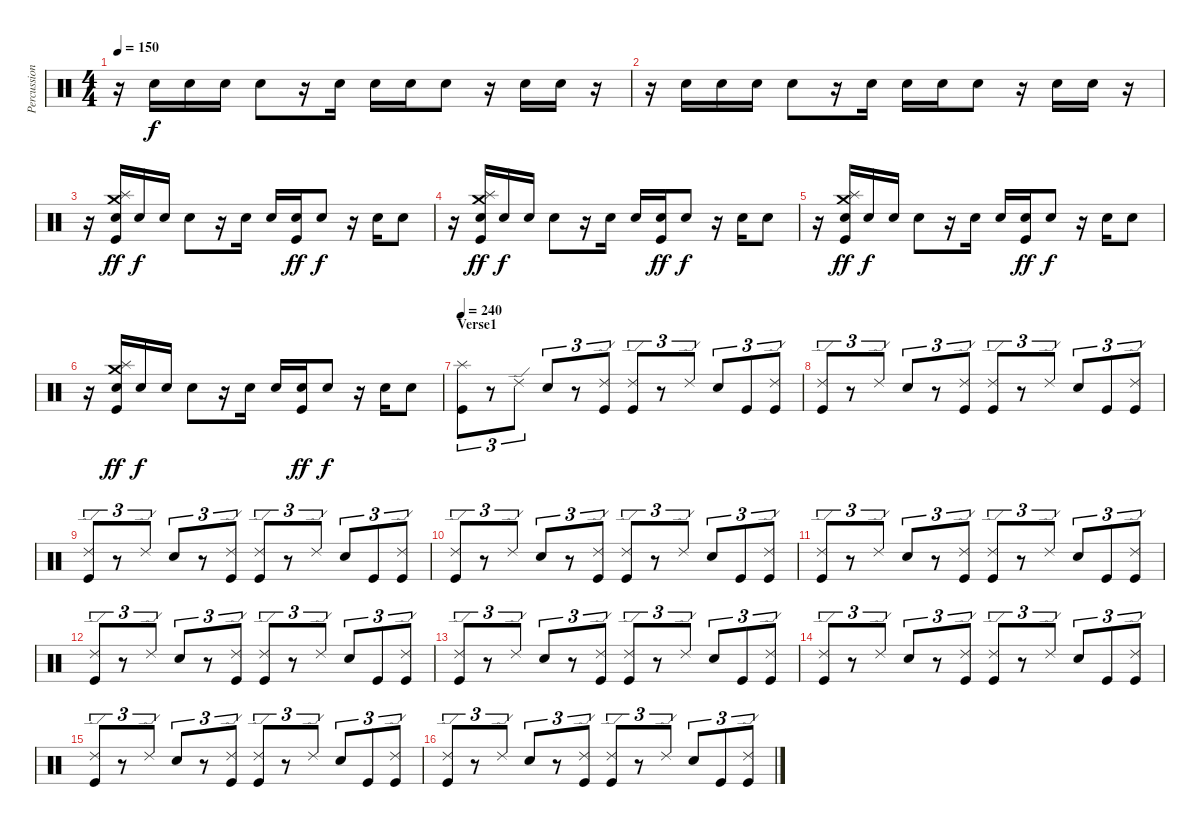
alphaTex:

\track ("Percussioni" "Percussion") {instrument percussion}
\staff {score}
\articulation defaults
\ts (4 4)
\tempo 150
\clef neutral
\ks c
r.16{dy f} "Electric Snare (hit)".16 "Electric Snare (hit)".16 "Electric Snare (hit)".16 "Electric Snare (hit)".8 r.16 "Electric Snare (hit)".16 "Electric Snare (hit)".16 "Electric Snare (hit)".16 "Electric Snare (hit)".8 r.16 "Electric Snare (hit)".16 "Electric Snare (hit)".16 r.16 |
r.16 "Electric Snare (hit)".16 "Electric Snare (hit)".16 "Electric Snare (hit)".16 "Electric Snare (hit)".8 r.16 "Electric Snare (hit)".16 "Electric Snare (hit)".16 "Electric Snare (hit)".16 "Electric Snare (hit)".8 r.16 "Electric Snare (hit)".16 "Electric Snare (hit)".16 r.16 |
r.16 ("Crash medium (hit)" "Splash (hit)" "Electric Snare (hit)" "Kick (hit)").16{dy ff} "Electric Snare (hit)".16{dy f} "Electric Snare (hit)".16 "Electric Snare (hit)".8 r.16 "Electric Snare (hit)".16 "Electric Snare (hit)".16 ("Electric Snare (hit)" "Kick (hit)").16{dy ff} "Electric Snare (hit)".8{dy f} r.16 "Electric Snare (hit)".16 "Electric Snare (hit)".8 |
r.16 ("Crash medium (hit)" "Splash (hit)" "Electric Snare (hit)" "Kick (hit)").16{dy ff} "Electric Snare (hit)".16{dy f} "Electric Snare (hit)".16 "Electric Snare (hit)".8 r.16 "Electric Snare (hit)".16 "Electric Snare (hit)".16 ("Electric Snare (hit)" "Kick (hit)").16{dy ff} "Electric Snare (hit)".8{dy f} r.16 "Electric Snare (hit)".16 "Electric Snare (hit)".8 |
r.16 ("Crash medium (hit)" "Splash (hit)" "Electric Snare (hit)" "Kick (hit)").16{dy ff} "Electric Snare (hit)".16{dy f} "Electric Snare (hit)".16 "Electric Snare (hit)".8 r.16 "Electric Snare (hit)".16 "Electric Snare (hit)".16 ("Electric Snare (hit)" "Kick (hit)").16{dy ff} "Electric Snare (hit)".8{dy f} r.16 "Electric Snare (hit)".16 "Electric Snare (hit)".8 |
r.16 ("Crash medium (hit)" "Splash (hit)" "Electric Snare (hit)" "Kick (hit)").16{dy ff} "Electric Snare (hit)".16{dy f} "Electric Snare (hit)".16 "Electric Snare (hit)".8 r.16 "Electric Snare (hit)".16 "Electric Snare (hit)".16 ("Electric Snare (hit)" "Kick (hit)").16{dy ff} "Electric Snare (hit)".8{dy f} r.16 "Electric Snare (hit)".16 "Electric Snare (hit)".8 |
\section ("" "Verse1")
\tempo 240
("Splash (hit)" "Kick (hit)").8{tu (3 2)} r.8{tu (3 2)} "Ride (edge) 2".8{tu (3 2)} "Electric Snare (hit)".8{tu (3 2)} r.8{tu (3 2)} ("Ride (edge) 2" "Kick (hit)").8{tu (3 2)} ("Ride (edge) 2" "Kick (hit)").8{tu (3 2)} r.8{tu (3 2)} "Ride (edge) 2".8{tu (3 2)} "Electric Snare (hit)".8{tu (3 2)} "Kick (hit)".8{tu (3 2)} ("Ride (edge) 2" "Kick (hit)").8{tu (3 2)} |
("Ride (edge) 2" "Kick (hit)").8{tu (3 2)} r.8{tu (3 2)} "Ride (edge) 2".8{tu (3 2)} "Electric Snare (hit)".8{tu (3 2)} r.8{tu (3 2)} ("Ride (edge) 2" "Kick (hit)").8{tu (3 2)} ("Ride (edge) 2" "Kick (hit)").8{tu (3 2)} r.8{tu (3 2)} "Ride (edge) 2".8{tu (3 2)} "Electric Snare (hit)".8{tu (3 2)} "Kick (hit)".8{tu (3 2)} ("Ride (edge) 2" "Kick (hit)").8{tu (3 2)} |
("Ride (edge) 2" "Kick (hit)").8{tu (3 2)} r.8{tu (3 2)} "Ride (edge) 2".8{tu (3 2)} "Electric Snare (hit)".8{tu (3 2)} r.8{tu (3 2)} ("Ride (edge) 2" "Kick (hit)").8{tu (3 2)} ("Ride (edge) 2" "Kick (hit)").8{tu (3 2)} r.8{tu (3 2)} "Ride (edge) 2".8{tu (3 2)} "Electric Snare (hit)".8{tu (3 2)} "Kick (hit)".8{tu (3 2)} ("Ride (edge) 2" "Kick (hit)").8{tu (3 2)} |
("Ride (edge) 2" "Kick (hit)").8{tu (3 2)} r.8{tu (3 2)} "Ride (edge) 2".8{tu (3 2)} "Electric Snare (hit)".8{tu (3 2)} r.8{tu (3 2)} ("Ride (edge) 2" "Kick (hit)").8{tu (3 2)} ("Ride (edge) 2" "Kick (hit)").8{tu (3 2)} r.8{tu (3 2)} "Ride (edge) 2".8{tu (3 2)} "Electric Snare (hit)".8{tu (3 2)} "Kick (hit)".8{tu (3 2)} ("Ride (edge) 2" "Kick (hit)").8{tu (3 2)} |
("Ride (edge) 2" "Kick (hit)").8{tu (3 2)} r.8{tu (3 2)} "Ride (edge) 2".8{tu (3 2)} "Electric Snare (hit)".8{tu (3 2)} r.8{tu (3 2)} ("Ride (edge) 2" "Kick (hit)").8{tu (3 2)} ("Ride (edge) 2" "Kick (hit)").8{tu (3 2)} r.8{tu (3 2)} "Ride (edge) 2".8{tu (3 2)} "Electric Snare (hit)".8{tu (3 2)} "Kick (hit)".8{tu (3 2)} ("Ride (edge) 2" "Kick (hit)").8{tu (3 2)} |
("Ride (edge) 2" "Kick (hit)").8{tu (3 2)} r.8{tu (3 2)} "Ride (edge) 2".8{tu (3 2)} "Electric Snare (hit)".8{tu (3 2)} r.8{tu (3 2)} ("Ride (edge) 2" "Kick (hit)").8{tu (3 2)} ("Ride (edge) 2" "Kick (hit)").8{tu (3 2)} r.8{tu (3 2)} "Ride (edge) 2".8{tu (3 2)} "Electric Snare (hit)".8{tu (3 2)} "Kick (hit)".8{tu (3 2)} ("Ride (edge) 2" "Kick (hit)").8{tu (3 2)} |
("Ride (edge) 2" "Kick (hit)").8{tu (3 2)} r.8{tu (3 2)} "Ride (edge) 2".8{tu (3 2)} "Electric Snare (hit)".8{tu (3 2)} r.8{tu (3 2)} ("Ride (edge) 2" "Kick (hit)").8{tu (3 2)} ("Ride (edge) 2" "Kick (hit)").8{tu (3 2)} r.8{tu (3 2)} "Ride (edge) 2".8{tu (3 2)} "Electric Snare (hit)".8{tu (3 2)} "Kick (hit)".8{tu (3 2)} ("Ride (edge) 2" "Kick (hit)").8{tu (3 2)} |
("Ride (edge) 2" "Kick (hit)").8{tu (3 2)} r.8{tu (3 2)} "Ride (edge) 2".8{tu (3 2)} "Electric Snare (hit)".8{tu (3 2)} r.8{tu (3 2)} ("Ride (edge) 2" "Kick (hit)").8{tu (3 2)} ("Ride (edge) 2" "Kick (hit)").8{tu (3 2)} r.8{tu (3 2)} "Ride (edge) 2".8{tu (3 2)} "Electric Snare (hit)".8{tu (3 2)} "Kick (hit)".8{tu (3 2)} ("Ride (edge) 2" "Kick (hit)").8{tu (3 2)} |
("Ride (edge) 2" "Kick (hit)").8{tu (3 2)} r.8{tu (3 2)} "Ride (edge) 2".8{tu (3 2)} "Electric Snare (hit)".8{tu (3 2)} r.8{tu (3 2)} ("Ride (edge) 2" "Kick (hit)").8{tu (3 2)} ("Ride (edge) 2" "Kick (hit)").8{tu (3 2)} r.8{tu (3 2)} "Ride (edge) 2".8{tu (3 2)} "Electric Snare (hit)".8{tu (3 2)} "Kick (hit)".8{tu (3 2)} ("Ride (edge) 2" "Kick (hit)").8{tu (3 2)} |
("Ride (edge) 2" "Kick (hit)").8{tu (3 2)} r.8{tu (3 2)} "Ride (edge) 2".8{tu (3 2)} "Electric Snare (hit)".8{tu (3 2)} r.8{tu (3 2)} ("Ride (edge) 2" "Kick (hit)").8{tu (3 2)} ("Ride (edge) 2" "Kick (hit)").8{tu (3 2)} r.8{tu (3 2)} "Ride (edge) 2".8{tu (3 2)} "Electric Snare (hit)".8{tu (3 2)} "Kick (hit)".8{tu (3 2)} ("Ride (edge) 2" "Kick (hit)").8{tu (3 2)}
